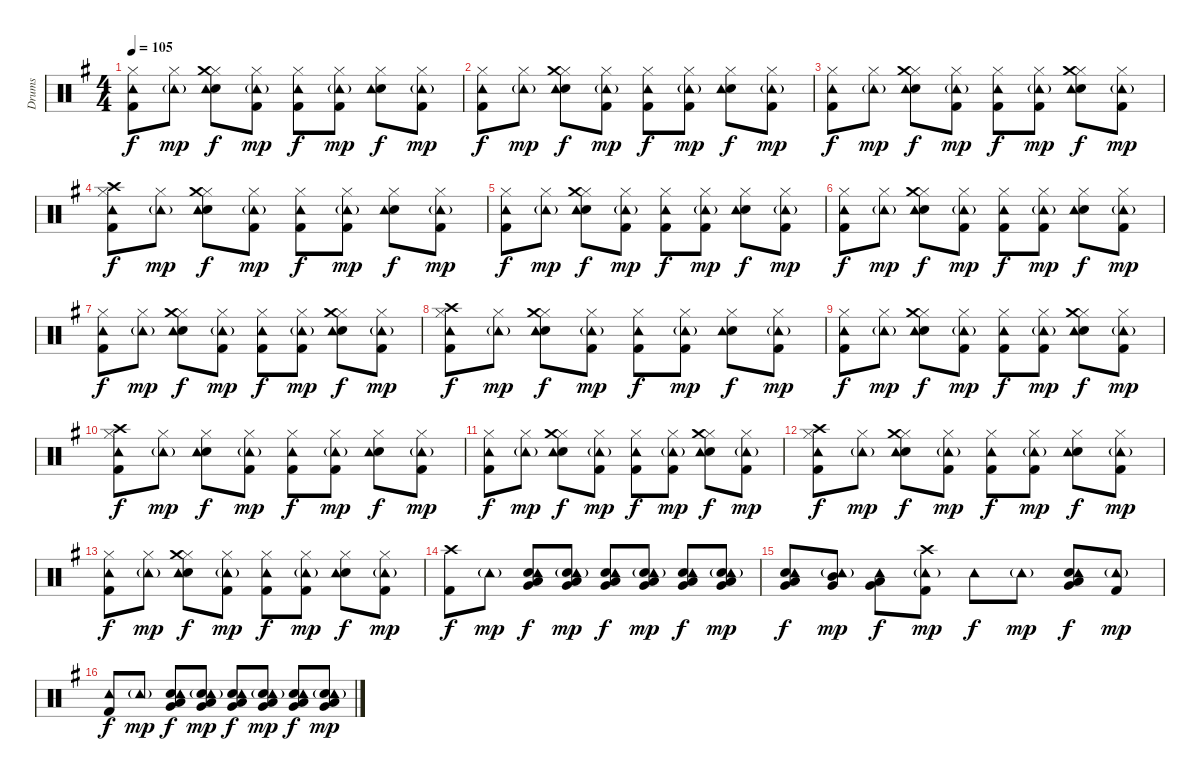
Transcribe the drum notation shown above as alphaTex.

\track ("Drums" "Drums") {instrument percussion}
\staff {score}
\articulation defaults
\ts (4 4)
\tempo 105
\clef neutral
\ks g
("Hi-Hat (closed)" "Kick (hit) 2" "Tambourine (hit)").8{dy f} ("Hi-Hat (closed)" "Tambourine (hit)"{g}).8{dy mp} ("Hi-Hat (closed)" "Snare (hit) 2" "Tambourine (hit)" "Crash medium (hit)").8{dy f} ("Hi-Hat (closed)" "Kick (hit) 2" "Tambourine (hit)"{g}).8{dy mp} ("Hi-Hat (closed)" "Kick (hit) 2" "Tambourine (hit)").8{dy f} ("Hi-Hat (closed)" "Kick (hit) 2" "Tambourine (hit)"{g}).8{dy mp} ("Hi-Hat (closed)" "Snare (hit) 2" "Tambourine (hit)").8{dy f} ("Hi-Hat (closed)" "Kick (hit) 2" "Tambourine (hit)"{g}).8{dy mp} |
("Hi-Hat (closed)" "Kick (hit) 2" "Tambourine (hit)").8{dy f} ("Hi-Hat (closed)" "Tambourine (hit)"{g}).8{dy mp} ("Hi-Hat (closed)" "Snare (hit) 2" "Tambourine (hit)" "Crash medium (hit)").8{dy f} ("Hi-Hat (closed)" "Kick (hit) 2" "Tambourine (hit)"{g}).8{dy mp} ("Hi-Hat (closed)" "Kick (hit) 2" "Tambourine (hit)").8{dy f} ("Hi-Hat (closed)" "Kick (hit) 2" "Tambourine (hit)"{g}).8{dy mp} ("Hi-Hat (closed)" "Snare (hit) 2" "Tambourine (hit)").8{dy f} ("Hi-Hat (closed)" "Kick (hit) 2" "Tambourine (hit)"{g}).8{dy mp} |
("Hi-Hat (closed)" "Kick (hit) 2" "Tambourine (hit)").8{dy f} ("Hi-Hat (closed)" "Tambourine (hit)"{g}).8{dy mp} ("Hi-Hat (closed)" "Snare (hit) 2" "Tambourine (hit)" "Crash medium (hit)").8{dy f} ("Hi-Hat (closed)" "Kick (hit) 2" "Tambourine (hit)"{g}).8{dy mp} ("Hi-Hat (closed)" "Kick (hit) 2" "Tambourine (hit)").8{dy f} ("Hi-Hat (closed)" "Kick (hit) 2" "Tambourine (hit)"{g}).8{dy mp} ("Hi-Hat (closed)" "Snare (hit) 2" "Tambourine (hit)" "Crash medium (hit)").8{dy f} ("Hi-Hat (closed)" "Kick (hit) 2" "Tambourine (hit)"{g}).8{dy mp} |
("Hi-Hat (closed)" "Kick (hit) 2" "Tambourine (hit)" "Crash high (hit)").8{dy f} ("Hi-Hat (closed)" "Tambourine (hit)"{g}).8{dy mp} ("Hi-Hat (closed)" "Snare (hit) 2" "Tambourine (hit)" "Crash medium (hit)").8{dy f} ("Hi-Hat (closed)" "Kick (hit) 2" "Tambourine (hit)"{g}).8{dy mp} ("Hi-Hat (closed)" "Kick (hit) 2" "Tambourine (hit)").8{dy f} ("Hi-Hat (closed)" "Kick (hit) 2" "Tambourine (hit)"{g}).8{dy mp} ("Hi-Hat (closed)" "Snare (hit) 2" "Tambourine (hit)").8{dy f} ("Hi-Hat (closed)" "Kick (hit) 2" "Tambourine (hit)"{g}).8{dy mp} |
("Hi-Hat (closed)" "Kick (hit) 2" "Tambourine (hit)").8{dy f} ("Hi-Hat (closed)" "Tambourine (hit)"{g}).8{dy mp} ("Hi-Hat (closed)" "Snare (hit) 2" "Tambourine (hit)" "Crash medium (hit)").8{dy f} ("Hi-Hat (closed)" "Kick (hit) 2" "Tambourine (hit)"{g}).8{dy mp} ("Hi-Hat (closed)" "Kick (hit) 2" "Tambourine (hit)").8{dy f} ("Hi-Hat (closed)" "Kick (hit) 2" "Tambourine (hit)"{g}).8{dy mp} ("Hi-Hat (closed)" "Snare (hit) 2" "Tambourine (hit)").8{dy f} ("Hi-Hat (closed)" "Kick (hit) 2" "Tambourine (hit)"{g}).8{dy mp} |
("Hi-Hat (closed)" "Kick (hit) 2" "Tambourine (hit)").8{dy f} ("Hi-Hat (closed)" "Tambourine (hit)"{g}).8{dy mp} ("Hi-Hat (closed)" "Snare (hit) 2" "Tambourine (hit)" "Crash medium (hit)").8{dy f} ("Hi-Hat (closed)" "Kick (hit) 2" "Tambourine (hit)"{g}).8{dy mp} ("Hi-Hat (closed)" "Kick (hit) 2" "Tambourine (hit)").8{dy f} ("Hi-Hat (closed)" "Kick (hit) 2" "Tambourine (hit)"{g}).8{dy mp} ("Hi-Hat (closed)" "Snare (hit) 2" "Tambourine (hit)").8{dy f} ("Hi-Hat (closed)" "Kick (hit) 2" "Tambourine (hit)"{g}).8{dy mp} |
("Hi-Hat (closed)" "Kick (hit) 2" "Tambourine (hit)").8{dy f} ("Hi-Hat (closed)" "Tambourine (hit)"{g}).8{dy mp} ("Hi-Hat (closed)" "Snare (hit) 2" "Tambourine (hit)" "Crash medium (hit)").8{dy f} ("Hi-Hat (closed)" "Kick (hit) 2" "Tambourine (hit)"{g}).8{dy mp} ("Hi-Hat (closed)" "Kick (hit) 2" "Tambourine (hit)").8{dy f} ("Hi-Hat (closed)" "Kick (hit) 2" "Tambourine (hit)"{g}).8{dy mp} ("Hi-Hat (closed)" "Snare (hit) 2" "Tambourine (hit)" "Crash medium (hit)").8{dy f} ("Hi-Hat (closed)" "Kick (hit) 2" "Tambourine (hit)"{g}).8{dy mp} |
("Hi-Hat (closed)" "Kick (hit) 2" "Tambourine (hit)" "Crash high (hit)").8{dy f} ("Hi-Hat (closed)" "Tambourine (hit)"{g}).8{dy mp} ("Hi-Hat (closed)" "Snare (hit) 2" "Tambourine (hit)" "Crash medium (hit)").8{dy f} ("Hi-Hat (closed)" "Kick (hit) 2" "Tambourine (hit)"{g}).8{dy mp} ("Hi-Hat (closed)" "Kick (hit) 2" "Tambourine (hit)").8{dy f} ("Hi-Hat (closed)" "Kick (hit) 2" "Tambourine (hit)"{g}).8{dy mp} ("Hi-Hat (closed)" "Snare (hit) 2" "Tambourine (hit)").8{dy f} ("Hi-Hat (closed)" "Kick (hit) 2" "Tambourine (hit)"{g}).8{dy mp} |
("Hi-Hat (closed)" "Kick (hit) 2" "Tambourine (hit)").8{dy f} ("Hi-Hat (closed)" "Tambourine (hit)"{g}).8{dy mp} ("Hi-Hat (closed)" "Snare (hit) 2" "Tambourine (hit)" "Crash medium (hit)").8{dy f} ("Hi-Hat (closed)" "Kick (hit) 2" "Tambourine (hit)"{g}).8{dy mp} ("Hi-Hat (closed)" "Kick (hit) 2" "Tambourine (hit)").8{dy f} ("Hi-Hat (closed)" "Kick (hit) 2" "Tambourine (hit)"{g}).8{dy mp} ("Hi-Hat (closed)" "Snare (hit) 2" "Tambourine (hit)" "Crash medium (hit)").8{dy f} ("Hi-Hat (closed)" "Kick (hit) 2" "Tambourine (hit)"{g}).8{dy mp} |
("Hi-Hat (closed)" "Kick (hit) 2" "Tambourine (hit)" "Crash high (hit)").8{dy f} ("Hi-Hat (closed)" "Tambourine (hit)"{g}).8{dy mp} ("Hi-Hat (closed)" "Snare (hit) 2" "Tambourine (hit)").8{dy f} ("Hi-Hat (closed)" "Kick (hit) 2" "Tambourine (hit)"{g}).8{dy mp} ("Hi-Hat (closed)" "Kick (hit) 2" "Tambourine (hit)").8{dy f} ("Hi-Hat (closed)" "Kick (hit) 2" "Tambourine (hit)"{g}).8{dy mp} ("Hi-Hat (closed)" "Snare (hit) 2" "Tambourine (hit)").8{dy f} ("Hi-Hat (closed)" "Kick (hit) 2" "Tambourine (hit)"{g}).8{dy mp} |
("Hi-Hat (closed)" "Kick (hit) 2" "Tambourine (hit)").8{dy f} ("Hi-Hat (closed)" "Tambourine (hit)"{g}).8{dy mp} ("Hi-Hat (closed)" "Snare (hit) 2" "Tambourine (hit)" "Crash medium (hit)").8{dy f} ("Hi-Hat (closed)" "Kick (hit) 2" "Tambourine (hit)"{g}).8{dy mp} ("Hi-Hat (closed)" "Kick (hit) 2" "Tambourine (hit)").8{dy f} ("Hi-Hat (closed)" "Kick (hit) 2" "Tambourine (hit)"{g}).8{dy mp} ("Hi-Hat (closed)" "Snare (hit) 2" "Tambourine (hit)" "Crash medium (hit)").8{dy f} ("Hi-Hat (closed)" "Kick (hit) 2" "Tambourine (hit)"{g}).8{dy mp} |
("Hi-Hat (closed)" "Kick (hit) 2" "Tambourine (hit)" "Crash high (hit)").8{dy f} ("Hi-Hat (closed)" "Tambourine (hit)"{g}).8{dy mp} ("Hi-Hat (closed)" "Snare (hit) 2" "Tambourine (hit)" "Crash medium (hit)").8{dy f} ("Hi-Hat (closed)" "Kick (hit) 2" "Tambourine (hit)"{g}).8{dy mp} ("Hi-Hat (closed)" "Kick (hit) 2" "Tambourine (hit)").8{dy f} ("Hi-Hat (closed)" "Kick (hit) 2" "Tambourine (hit)"{g}).8{dy mp} ("Hi-Hat (closed)" "Snare (hit) 2" "Tambourine (hit)").8{dy f} ("Hi-Hat (closed)" "Kick (hit) 2" "Tambourine (hit)"{g}).8{dy mp} |
("Hi-Hat (closed)" "Kick (hit) 2" "Tambourine (hit)").8{dy f} ("Hi-Hat (closed)" "Tambourine (hit)"{g}).8{dy mp} ("Hi-Hat (closed)" "Snare (hit) 2" "Tambourine (hit)" "Crash medium (hit)").8{dy f} ("Hi-Hat (closed)" "Kick (hit) 2" "Tambourine (hit)"{g}).8{dy mp} ("Hi-Hat (closed)" "Kick (hit) 2" "Tambourine (hit)").8{dy f} ("Hi-Hat (closed)" "Kick (hit) 2" "Tambourine (hit)"{g}).8{dy mp} ("Hi-Hat (closed)" "Snare (hit) 2" "Tambourine (hit)").8{dy f} ("Hi-Hat (closed)" "Kick (hit) 2" "Tambourine (hit)"{g}).8{dy mp} |
("Kick (hit) 2" "Crash high (hit)").8{dy f} "Tambourine (hit)"{g}.8{dy mp} ("Snare (hit) 2" "Low Tom (hit)" "Very Low Tom (hit)" "Tambourine (hit)").8{dy f} ("Snare (hit) 2" "Low Tom (hit)" "Very Low Tom (hit)" "Tambourine (hit)"{g}).8{dy mp} ("Snare (hit) 2" "Low Tom (hit)" "Very Low Tom (hit)" "Tambourine (hit)").8{dy f} ("Snare (hit) 2" "Low Tom (hit)" "Very Low Tom (hit)" "Tambourine (hit)"{g}).8{dy mp} ("Snare (hit) 2" "Low Tom (hit)" "Very Low Tom (hit)" "Tambourine (hit)").8{dy f} ("Snare (hit) 2" "Low Tom (hit)" "Very Low Tom (hit)" "Tambourine (hit)"{g}).8{dy mp} |
("Snare (hit) 2" "Low Tom (hit)" "Very Low Tom (hit)" "Tambourine (hit)").8{dy f} ("Mid Tom (hit)" "Very Low Tom (hit)" "Tambourine (hit)"{g}).8{dy mp} ("Low Tom (hit)" "Very Low Tom (hit)" "Tambourine (hit)").8{dy f} ("Kick (hit) 2" "Crash high (hit)" "Tambourine (hit)"{g}).8{dy mp} "Tambourine (hit)".8{dy f} "Tambourine (hit)"{g}.8{dy mp} ("Snare (hit) 2" "Low Tom (hit)" "Very Low Tom (hit)" "Tambourine (hit)").8{dy f} ("Kick (hit) 2" "Tambourine (hit)"{g}).8{dy mp} |
("Kick (hit) 2" "Tambourine (hit)").8{dy f} "Tambourine (hit)"{g}.8{dy mp} ("Snare (hit) 2" "Low Tom (hit)" "Very Low Tom (hit)" "Tambourine (hit)").8{dy f} ("Snare (hit) 2" "Low Tom (hit)" "Very Low Tom (hit)" "Tambourine (hit)"{g}).8{dy mp} ("Snare (hit) 2" "Low Tom (hit)" "Very Low Tom (hit)" "Tambourine (hit)").8{dy f} ("Snare (hit) 2" "Low Tom (hit)" "Very Low Tom (hit)" "Tambourine (hit)"{g}).8{dy mp} ("Snare (hit) 2" "Low Tom (hit)" "Very Low Tom (hit)" "Tambourine (hit)").8{dy f} ("Snare (hit) 2" "Low Tom (hit)" "Very Low Tom (hit)" "Tambourine (hit)"{g}).8{dy mp}
